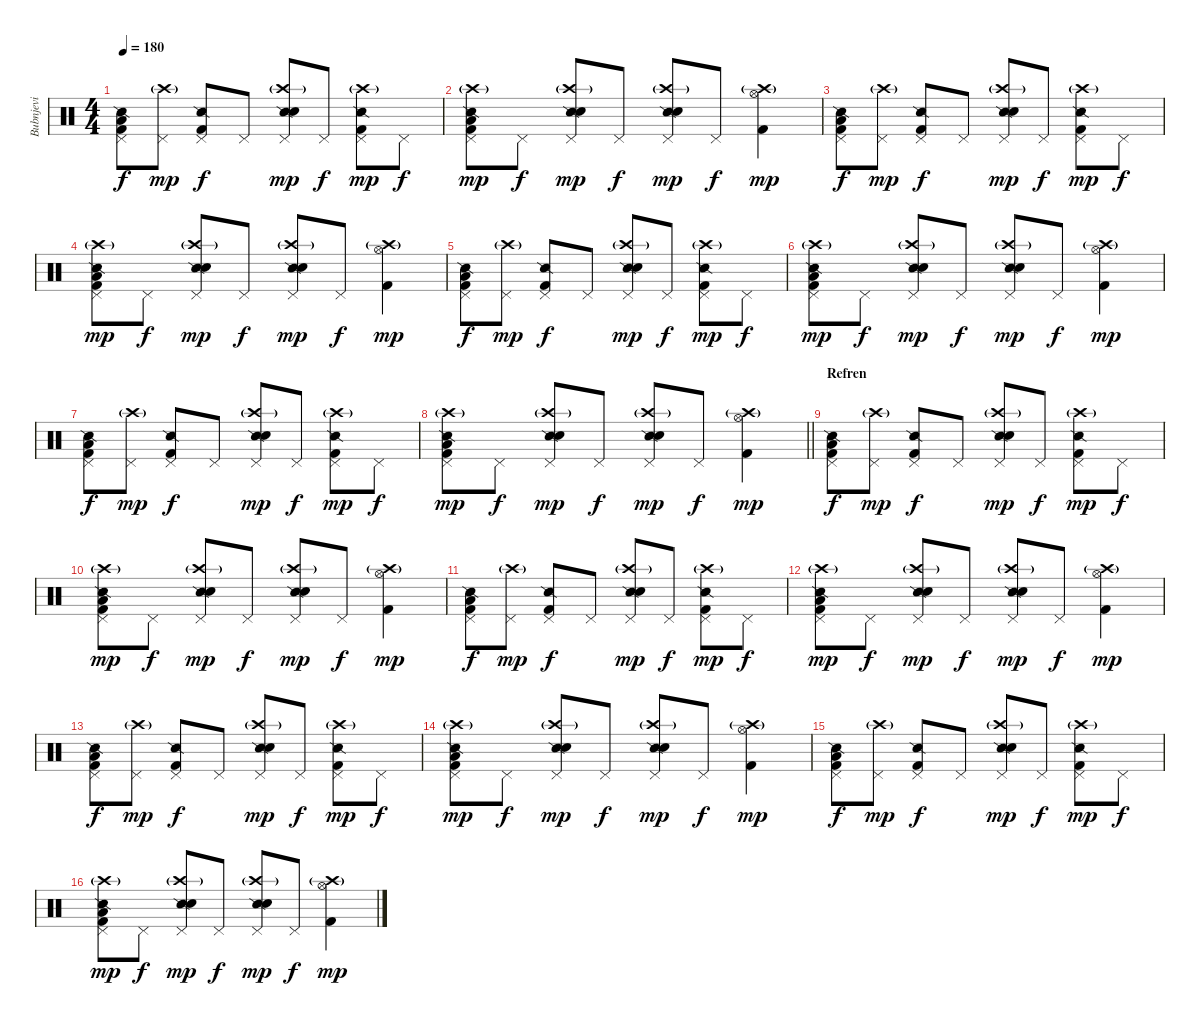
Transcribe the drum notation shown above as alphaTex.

\track ("Bubnjevi" "Bubnjevi") {instrument percussion}
\staff {score}
\articulation defaults
\ts (4 4)
\tempo 180
\clef neutral
\ks c
("Snare (side stick) 2" "Pedal Hi-Hat (hit)" "Low Tom (hit)" "Kick (hit) 2").8{dy f} ("Crash high (hit)"{g} "Pedal Hi-Hat (hit)").8{dy mp} ("Snare (side stick) 2" "Pedal Hi-Hat (hit)" "Kick (hit) 2").8{dy f} "Pedal Hi-Hat (hit)".8 ("Crash high (hit)"{g} "Snare (side stick) 2" "Pedal Hi-Hat (hit)" "Electric Snare (hit)").8{dy mp} "Pedal Hi-Hat (hit)".8{dy f} ("Crash high (hit)"{g} "Snare (side stick) 2" "Pedal Hi-Hat (hit)" "Kick (hit) 2").8{dy mp} "Pedal Hi-Hat (hit)".8{dy f} |
("Crash high (hit)"{g} "Snare (side stick) 2" "Pedal Hi-Hat (hit)" "Low Tom (hit)" "Kick (hit) 2").8{dy mp} "Pedal Hi-Hat (hit)".8{dy f} ("Crash high (hit)"{g} "Snare (side stick) 2" "Pedal Hi-Hat (hit)" "Hand Clap (hit)").8{dy mp} "Pedal Hi-Hat (hit)".8{dy f} ("Crash high (hit)"{g} "Snare (side stick) 2" "Pedal Hi-Hat (hit)" "Electric Snare (hit)").8{dy mp} "Pedal Hi-Hat (hit)".8{dy f} ("Crash high (hit)"{g} "Hi-Hat (open)" "Kick (hit) 2").4{dy mp} |
("Snare (side stick) 2" "Pedal Hi-Hat (hit)" "Low Tom (hit)" "Kick (hit) 2").8{dy f} ("Crash high (hit)"{g} "Pedal Hi-Hat (hit)").8{dy mp} ("Snare (side stick) 2" "Pedal Hi-Hat (hit)" "Kick (hit) 2").8{dy f} "Pedal Hi-Hat (hit)".8 ("Crash high (hit)"{g} "Snare (side stick) 2" "Pedal Hi-Hat (hit)" "Electric Snare (hit)").8{dy mp} "Pedal Hi-Hat (hit)".8{dy f} ("Crash high (hit)"{g} "Snare (side stick) 2" "Pedal Hi-Hat (hit)" "Kick (hit) 2").8{dy mp} "Pedal Hi-Hat (hit)".8{dy f} |
("Crash high (hit)"{g} "Snare (side stick) 2" "Pedal Hi-Hat (hit)" "Low Tom (hit)" "Kick (hit) 2").8{dy mp} "Pedal Hi-Hat (hit)".8{dy f} ("Crash high (hit)"{g} "Snare (side stick) 2" "Pedal Hi-Hat (hit)" "Hand Clap (hit)").8{dy mp} "Pedal Hi-Hat (hit)".8{dy f} ("Crash high (hit)"{g} "Snare (side stick) 2" "Pedal Hi-Hat (hit)" "Electric Snare (hit)").8{dy mp} "Pedal Hi-Hat (hit)".8{dy f} ("Crash high (hit)"{g} "Hi-Hat (open)" "Kick (hit) 2").4{dy mp} |
("Snare (side stick) 2" "Pedal Hi-Hat (hit)" "Low Tom (hit)" "Kick (hit) 2").8{dy f} ("Crash high (hit)"{g} "Pedal Hi-Hat (hit)").8{dy mp} ("Snare (side stick) 2" "Pedal Hi-Hat (hit)" "Kick (hit) 2").8{dy f} "Pedal Hi-Hat (hit)".8 ("Crash high (hit)"{g} "Snare (side stick) 2" "Pedal Hi-Hat (hit)" "Electric Snare (hit)").8{dy mp} "Pedal Hi-Hat (hit)".8{dy f} ("Crash high (hit)"{g} "Snare (side stick) 2" "Pedal Hi-Hat (hit)" "Kick (hit) 2").8{dy mp} "Pedal Hi-Hat (hit)".8{dy f} |
("Crash high (hit)"{g} "Snare (side stick) 2" "Pedal Hi-Hat (hit)" "Low Tom (hit)" "Kick (hit) 2").8{dy mp} "Pedal Hi-Hat (hit)".8{dy f} ("Crash high (hit)"{g} "Snare (side stick) 2" "Pedal Hi-Hat (hit)" "Hand Clap (hit)").8{dy mp} "Pedal Hi-Hat (hit)".8{dy f} ("Crash high (hit)"{g} "Snare (side stick) 2" "Pedal Hi-Hat (hit)" "Electric Snare (hit)").8{dy mp} "Pedal Hi-Hat (hit)".8{dy f} ("Crash high (hit)"{g} "Hi-Hat (open)" "Kick (hit) 2").4{dy mp} |
("Snare (side stick) 2" "Pedal Hi-Hat (hit)" "Low Tom (hit)" "Kick (hit) 2").8{dy f} ("Crash high (hit)"{g} "Pedal Hi-Hat (hit)").8{dy mp} ("Snare (side stick) 2" "Pedal Hi-Hat (hit)" "Kick (hit) 2").8{dy f} "Pedal Hi-Hat (hit)".8 ("Crash high (hit)"{g} "Snare (side stick) 2" "Pedal Hi-Hat (hit)" "Electric Snare (hit)").8{dy mp} "Pedal Hi-Hat (hit)".8{dy f} ("Crash high (hit)"{g} "Snare (side stick) 2" "Pedal Hi-Hat (hit)" "Kick (hit) 2").8{dy mp} "Pedal Hi-Hat (hit)".8{dy f} |
\barLineRight lightlight
("Crash high (hit)"{g} "Snare (side stick) 2" "Pedal Hi-Hat (hit)" "Low Tom (hit)" "Kick (hit) 2").8{dy mp} "Pedal Hi-Hat (hit)".8{dy f} ("Crash high (hit)"{g} "Snare (side stick) 2" "Pedal Hi-Hat (hit)" "Hand Clap (hit)").8{dy mp} "Pedal Hi-Hat (hit)".8{dy f} ("Crash high (hit)"{g} "Snare (side stick) 2" "Pedal Hi-Hat (hit)" "Electric Snare (hit)").8{dy mp} "Pedal Hi-Hat (hit)".8{dy f} ("Crash high (hit)"{g} "Hi-Hat (open)" "Kick (hit) 2").4{dy mp} |
\section ("" "Refren")
("Snare (side stick) 2" "Pedal Hi-Hat (hit)" "Low Tom (hit)" "Kick (hit) 2").8{dy f} ("Crash high (hit)"{g} "Pedal Hi-Hat (hit)").8{dy mp} ("Snare (side stick) 2" "Pedal Hi-Hat (hit)" "Kick (hit) 2").8{dy f} "Pedal Hi-Hat (hit)".8 ("Crash high (hit)"{g} "Snare (side stick) 2" "Pedal Hi-Hat (hit)" "Electric Snare (hit)").8{dy mp} "Pedal Hi-Hat (hit)".8{dy f} ("Crash high (hit)"{g} "Snare (side stick) 2" "Pedal Hi-Hat (hit)" "Kick (hit) 2").8{dy mp} "Pedal Hi-Hat (hit)".8{dy f} |
("Crash high (hit)"{g} "Snare (side stick) 2" "Pedal Hi-Hat (hit)" "Low Tom (hit)" "Kick (hit) 2").8{dy mp} "Pedal Hi-Hat (hit)".8{dy f} ("Crash high (hit)"{g} "Snare (side stick) 2" "Pedal Hi-Hat (hit)" "Hand Clap (hit)").8{dy mp} "Pedal Hi-Hat (hit)".8{dy f} ("Crash high (hit)"{g} "Snare (side stick) 2" "Pedal Hi-Hat (hit)" "Electric Snare (hit)").8{dy mp} "Pedal Hi-Hat (hit)".8{dy f} ("Crash high (hit)"{g} "Hi-Hat (open)" "Kick (hit) 2").4{dy mp} |
("Snare (side stick) 2" "Pedal Hi-Hat (hit)" "Low Tom (hit)" "Kick (hit) 2").8{dy f} ("Crash high (hit)"{g} "Pedal Hi-Hat (hit)").8{dy mp} ("Snare (side stick) 2" "Pedal Hi-Hat (hit)" "Kick (hit) 2").8{dy f} "Pedal Hi-Hat (hit)".8 ("Crash high (hit)"{g} "Snare (side stick) 2" "Pedal Hi-Hat (hit)" "Electric Snare (hit)").8{dy mp} "Pedal Hi-Hat (hit)".8{dy f} ("Crash high (hit)"{g} "Snare (side stick) 2" "Pedal Hi-Hat (hit)" "Kick (hit) 2").8{dy mp} "Pedal Hi-Hat (hit)".8{dy f} |
("Crash high (hit)"{g} "Snare (side stick) 2" "Pedal Hi-Hat (hit)" "Low Tom (hit)" "Kick (hit) 2").8{dy mp} "Pedal Hi-Hat (hit)".8{dy f} ("Crash high (hit)"{g} "Snare (side stick) 2" "Pedal Hi-Hat (hit)" "Hand Clap (hit)").8{dy mp} "Pedal Hi-Hat (hit)".8{dy f} ("Crash high (hit)"{g} "Snare (side stick) 2" "Pedal Hi-Hat (hit)" "Electric Snare (hit)").8{dy mp} "Pedal Hi-Hat (hit)".8{dy f} ("Crash high (hit)"{g} "Hi-Hat (open)" "Kick (hit) 2").4{dy mp} |
("Snare (side stick) 2" "Pedal Hi-Hat (hit)" "Low Tom (hit)" "Kick (hit) 2").8{dy f} ("Crash high (hit)"{g} "Pedal Hi-Hat (hit)").8{dy mp} ("Snare (side stick) 2" "Pedal Hi-Hat (hit)" "Kick (hit) 2").8{dy f} "Pedal Hi-Hat (hit)".8 ("Crash high (hit)"{g} "Snare (side stick) 2" "Pedal Hi-Hat (hit)" "Electric Snare (hit)").8{dy mp} "Pedal Hi-Hat (hit)".8{dy f} ("Crash high (hit)"{g} "Snare (side stick) 2" "Pedal Hi-Hat (hit)" "Kick (hit) 2").8{dy mp} "Pedal Hi-Hat (hit)".8{dy f} |
("Crash high (hit)"{g} "Snare (side stick) 2" "Pedal Hi-Hat (hit)" "Low Tom (hit)" "Kick (hit) 2").8{dy mp} "Pedal Hi-Hat (hit)".8{dy f} ("Crash high (hit)"{g} "Snare (side stick) 2" "Pedal Hi-Hat (hit)" "Hand Clap (hit)").8{dy mp} "Pedal Hi-Hat (hit)".8{dy f} ("Crash high (hit)"{g} "Snare (side stick) 2" "Pedal Hi-Hat (hit)" "Electric Snare (hit)").8{dy mp} "Pedal Hi-Hat (hit)".8{dy f} ("Crash high (hit)"{g} "Hi-Hat (open)" "Kick (hit) 2").4{dy mp} |
("Snare (side stick) 2" "Pedal Hi-Hat (hit)" "Low Tom (hit)" "Kick (hit) 2").8{dy f} ("Crash high (hit)"{g} "Pedal Hi-Hat (hit)").8{dy mp} ("Snare (side stick) 2" "Pedal Hi-Hat (hit)" "Kick (hit) 2").8{dy f} "Pedal Hi-Hat (hit)".8 ("Crash high (hit)"{g} "Snare (side stick) 2" "Pedal Hi-Hat (hit)" "Electric Snare (hit)").8{dy mp} "Pedal Hi-Hat (hit)".8{dy f} ("Crash high (hit)"{g} "Snare (side stick) 2" "Pedal Hi-Hat (hit)" "Kick (hit) 2").8{dy mp} "Pedal Hi-Hat (hit)".8{dy f} |
("Crash high (hit)"{g} "Snare (side stick) 2" "Pedal Hi-Hat (hit)" "Low Tom (hit)" "Kick (hit) 2").8{dy mp} "Pedal Hi-Hat (hit)".8{dy f} ("Crash high (hit)"{g} "Snare (side stick) 2" "Pedal Hi-Hat (hit)" "Hand Clap (hit)").8{dy mp} "Pedal Hi-Hat (hit)".8{dy f} ("Crash high (hit)"{g} "Snare (side stick) 2" "Pedal Hi-Hat (hit)" "Electric Snare (hit)").8{dy mp} "Pedal Hi-Hat (hit)".8{dy f} ("Crash high (hit)"{g} "Hi-Hat (open)" "Kick (hit) 2").4{dy mp}
